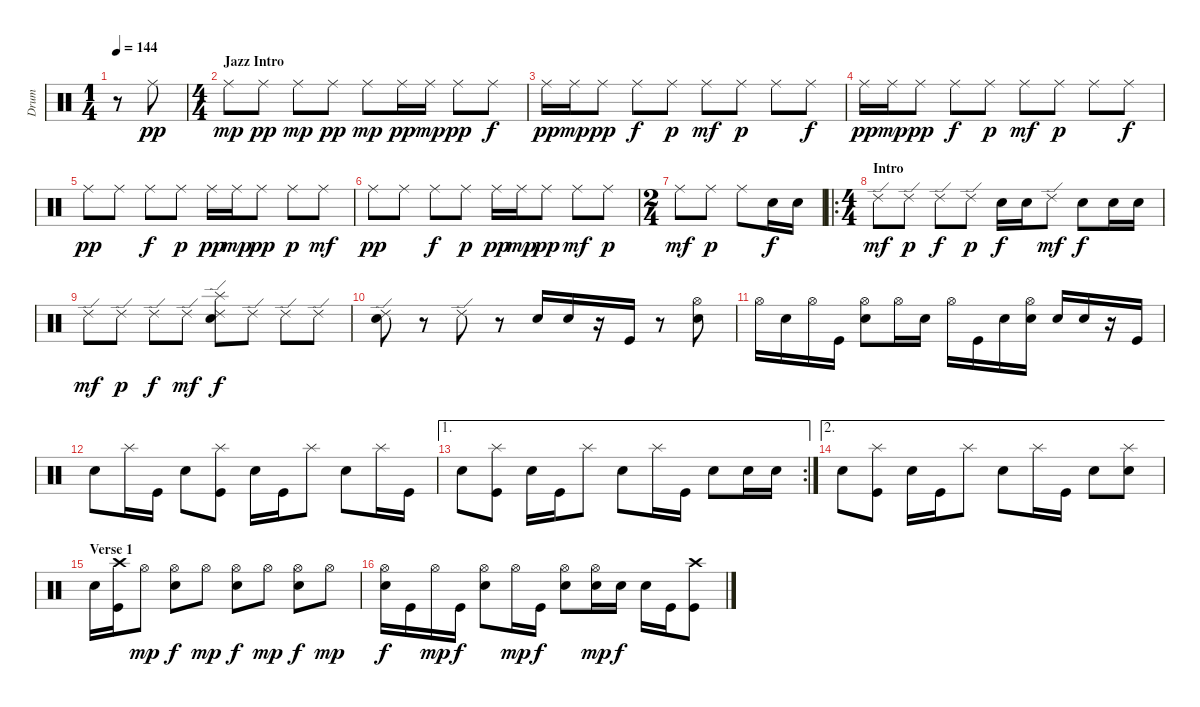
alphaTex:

\track ("Drum" "Drum") {instrument percussion}
\staff {score}
\articulation defaults
\ts (1 4)
\tempo 144
\clef neutral
\ks c
r.8{dy pp} "Ride (middle)".8 |
\ts (4 4)
\section ("" "Jazz Intro")
"Ride (middle)".8{dy mp} "Ride (middle)".8{dy pp} "Ride (middle)".8{dy mp} "Ride (middle)".8{dy pp} "Ride (middle)".8{dy mp} "Ride (middle)".16{dy pp} "Ride (middle)".16{dy mp} "Ride (middle)".8{dy pp} "Ride (middle)".8{dy f} |
"Ride (middle)".16{dy pp} "Ride (middle)".16{dy mp} "Ride (middle)".8{dy pp} "Ride (middle)".8{dy f} "Ride (middle)".8{dy p} "Ride (middle)".8{dy mf} "Ride (middle)".8{dy p} "Ride (middle)".8 "Ride (middle)".8{dy f} |
"Ride (middle)".16{dy pp} "Ride (middle)".16{dy mp} "Ride (middle)".8{dy pp} "Ride (middle)".8{dy f} "Ride (middle)".8{dy p} "Ride (middle)".8{dy mf} "Ride (middle)".8{dy p} "Ride (middle)".8 "Ride (middle)".8{dy f} |
"Ride (middle)".8{dy pp} "Ride (middle)".8 "Ride (middle)".8{dy f} "Ride (middle)".8{dy p} "Ride (middle)".16{dy pp} "Ride (middle)".16{dy mp} "Ride (middle)".8{dy pp} "Ride (middle)".8{dy p} "Ride (middle)".8{dy mf} |
"Ride (middle)".8{dy pp} "Ride (middle)".8 "Ride (middle)".8{dy f} "Ride (middle)".8{dy p} "Ride (middle)".16{dy pp} "Ride (middle)".16{dy mp} "Ride (middle)".8{dy pp} "Ride (middle)".8{dy mf} "Ride (middle)".8{dy p} |
\ts (2 4)
"Ride (middle)".8{dy mf} "Ride (middle)".8{dy p} "Ride (middle)".8 "Snare (hit) 2".16{dy f} "Snare (hit) 2".16 |
\ro
\ts (4 4)
\section ("" "Intro")
"Ride (edge) 2".8{dy mf} "Ride (edge) 2".8{dy p} "Ride (edge) 2".8{dy f} "Ride (edge) 2".8{dy p} "Snare (hit) 2".16{dy f} "Snare (hit) 2".16 "Ride (edge) 2".8{dy mf} "Snare (hit) 2".8{dy f} "Snare (hit) 2".16 "Snare (hit) 2".16 |
"Ride (edge) 2".8{dy mf} "Ride (edge) 2".8{dy p} "Ride (edge) 2".8{dy f} "Ride (edge) 2".8{dy mf} ("Ride (edge) 2" "Splash (hit)" "Snare (hit) 2").8{dy f} "Ride (edge) 2".8 "Ride (edge) 2".8 "Ride (edge) 2".8 |
("Ride (edge) 2" "Snare (hit) 2").8 r.8 "Ride (edge) 2".8 r.8 "Snare (hit) 2".16 "Snare (hit) 2".16 r.16 "Kick (hit)".16 r.8 ("Hi-Hat (open)" "Snare (hit) 2").8 |
"Hi-Hat (open)".16 "Snare (hit) 2".16 "Hi-Hat (open)".16 "Kick (hit)".16 ("Hi-Hat (open)" "Snare (hit) 2").8 "Hi-Hat (open)".16 "Snare (hit) 2".16 "Hi-Hat (open)".16 "Kick (hit)".16 "Snare (hit) 2".16 ("Hi-Hat (open)" "Snare (hit) 2").16 "Snare (hit) 2".16 "Snare (hit) 2".16 r.16 "Kick (hit)".16 |
"Snare (hit) 2".8 "Splash (hit)".16 "Kick (hit)".16 "Snare (hit) 2".8 ("Splash (hit)" "Kick (hit)").8 "Snare (hit) 2".16 "Kick (hit)".16 "Splash (hit)".8 "Snare (hit) 2".8 "Splash (hit)".16 "Kick (hit)".16 |
\ae 1
\rc 2 "Snare (hit) 2".8
("Splash (hit)" "Kick (hit)").8 "Snare (hit) 2".16 "Kick (hit)".16 "Splash (hit)".8 "Snare (hit) 2".8 "Splash (hit)".16 "Kick (hit)".16 "Snare (hit) 2".8 "Snare (hit) 2".16 "Snare (hit) 2".16 |
\ae 2 "Snare (hit) 2".8
("Splash (hit)" "Kick (hit)").8 "Snare (hit) 2".16 "Kick (hit)".16 "Splash (hit)".8 "Snare (hit) 2".8 "Splash (hit)".16 "Kick (hit)".16 "Snare (hit) 2".8 ("Splash (hit)" "Snare (hit) 2").8 |
\section ("" "Verse 1")
"Snare (hit) 2".16 ("Crash high (hit)" "Kick (hit)").16 "Hi-Hat (open)".8{dy mp} ("Hi-Hat (open)" "Snare (hit) 2").8{dy f} "Hi-Hat (open)".8{dy mp} ("Hi-Hat (open)" "Snare (hit) 2").8{dy f} "Hi-Hat (open)".8{dy mp} ("Hi-Hat (open)" "Snare (hit) 2").8{dy f} "Hi-Hat (open)".8{dy mp} |
("Hi-Hat (open)" "Snare (hit) 2").16{dy f} "Kick (hit)".16 "Hi-Hat (open)".16{dy mp} "Kick (hit)".16{dy f} ("Hi-Hat (open)" "Snare (hit) 2").8 "Hi-Hat (open)".16{dy mp} "Kick (hit)".16{dy f} ("Hi-Hat (open)" "Snare (hit) 2").8 ("Hi-Hat (open)" "Snare (hit) 2").16{dy mp} "Snare (hit) 2".16{dy f} "Snare (hit) 2".16 "Kick (hit)".16 ("Crash high (hit)" "Kick (hit)").8
